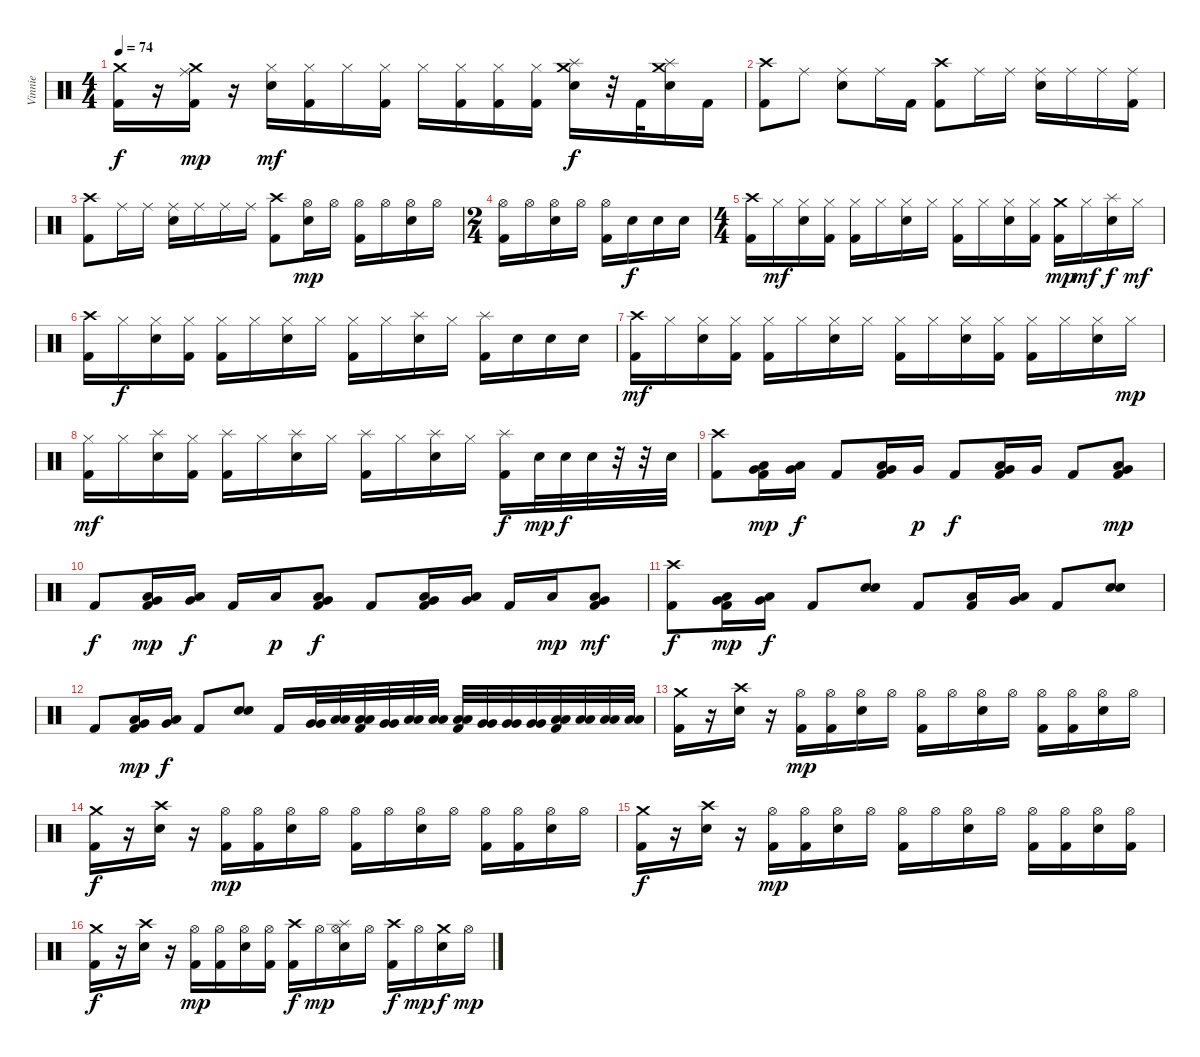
\track ("Vinnie" "Vinnie") {instrument percussion}
\staff {score}
\articulation defaults
\ts (4 4)
\tempo 74
\clef neutral
\ks c
("Crash medium (hit)" "Kick (hit) 2").16{dy f} r.16 ("Crash medium (hit)" "Ride (middle)" "Kick (hit) 2").16{dy mp} r.16 ("Hi-Hat (closed)" "Electric Snare (hit)").16{dy mf} ("Hi-Hat (closed)" "Kick (hit) 2").16 "Hi-Hat (closed)".16 ("Hi-Hat (closed)" "Kick (hit) 2").16 "Hi-Hat (closed)".16 ("Hi-Hat (closed)" "Kick (hit) 2").16 ("Hi-Hat (closed)" "Kick (hit) 2").16 ("Hi-Hat (closed)" "Kick (hit) 2").16 ("Crash medium (hit)" "Splash (hit)" "Electric Snare (hit)").16{dy f} r.32 "Kick (hit) 2".32 ("Crash medium (hit)" "Splash (hit)" "Electric Snare (hit)").16 "Kick (hit) 2".16 |
("Crash high (hit)" "Kick (hit) 2").8 "Ride (middle)".8 ("Ride (middle)" "Electric Snare (hit)").8 "Ride (middle)".16 "Kick (hit) 2".16 ("Crash high (hit)" "Kick (hit) 2").8 "Ride (middle)".16 "Ride (middle)".16 ("Ride (middle)" "Electric Snare (hit)").16 "Ride (middle)".16 "Ride (middle)".16 ("Ride (middle)" "Kick (hit) 2").16 |
("Crash high (hit)" "Kick (hit) 2").8 "Ride (middle)".16 "Ride (middle)".16 ("Ride (middle)" "Electric Snare (hit)").16 "Ride (middle)".16 "Ride (middle)".16 "Ride (middle)".16 ("Crash high (hit)" "Kick (hit) 2").8 ("Hi-Hat (open)" "Electric Snare (hit)").16{dy mp} "Hi-Hat (open)".16 ("Hi-Hat (open)" "Kick (hit) 2").16 "Hi-Hat (open)".16 ("Hi-Hat (open)" "Electric Snare (hit)").16 "Hi-Hat (open)".16 |
\ts (2 4)
("Hi-Hat (open)" "Kick (hit) 2").16 "Hi-Hat (open)".16 ("Hi-Hat (open)" "Electric Snare (hit)").16 "Hi-Hat (open)".16 ("Hi-Hat (open)" "Kick (hit) 2").16 "Electric Snare (hit)".16{dy f} "Electric Snare (hit)".16 "Electric Snare (hit)".16 |
\ts (4 4)
("Crash high (hit)" "Kick (hit) 2").16 "Hi-Hat (closed)".16{dy mf} ("Hi-Hat (closed)" "Electric Snare (hit)").16 ("Hi-Hat (closed)" "Kick (hit) 2").16 ("Hi-Hat (closed)" "Kick (hit) 2").16 "Hi-Hat (closed)".16 ("Hi-Hat (closed)" "Electric Snare (hit)").16 "Hi-Hat (closed)".16 ("Hi-Hat (closed)" "Kick (hit) 2").16 "Hi-Hat (closed)".16 ("Hi-Hat (closed)" "Electric Snare (hit)").16 ("Hi-Hat (closed)" "Kick (hit) 2").16 ("Crash medium (hit)" "Kick (hit) 2").16{dy mp} "Hi-Hat (closed)".16{dy mf} ("Splash (hit)" "Electric Snare (hit)").16{dy f} "Hi-Hat (closed)".16{dy mf} |
("Crash high (hit)" "Kick (hit) 2").16 "Hi-Hat (closed)".16{dy f} ("Hi-Hat (closed)" "Electric Snare (hit)").16 ("Hi-Hat (closed)" "Kick (hit) 2").16 ("Hi-Hat (closed)" "Kick (hit) 2").16 "Hi-Hat (closed)".16 ("Hi-Hat (closed)" "Electric Snare (hit)").16 "Hi-Hat (closed)".16 ("Hi-Hat (closed)" "Kick (hit) 2").16 "Hi-Hat (closed)".16 ("Splash (hit)" "Electric Snare (hit)").16 "Hi-Hat (closed)".16 ("Splash (hit)" "Kick (hit) 2").16 "Electric Snare (hit)".16 "Electric Snare (hit)".16 "Electric Snare (hit)".16 |
("Crash high (hit)" "Kick (hit) 2").16{dy mf} "Hi-Hat (closed)".16 ("Hi-Hat (closed)" "Electric Snare (hit)").16 ("Hi-Hat (closed)" "Kick (hit) 2").16 ("Hi-Hat (closed)" "Kick (hit) 2").16 "Hi-Hat (closed)".16 ("Hi-Hat (closed)" "Electric Snare (hit)").16 "Hi-Hat (closed)".16 ("Hi-Hat (closed)" "Kick (hit) 2").16 "Hi-Hat (closed)".16 ("Hi-Hat (closed)" "Electric Snare (hit)").16 ("Hi-Hat (closed)" "Kick (hit) 2").16 ("Hi-Hat (closed)" "Kick (hit) 2").16 "Hi-Hat (closed)".16 ("Hi-Hat (closed)" "Electric Snare (hit)").16 "Hi-Hat (closed)".16{dy mp} |
("Hi-Hat (closed)" "Kick (hit) 2").16{dy mf} "Hi-Hat (closed)".16 ("Splash (hit)" "Electric Snare (hit)").16 ("Hi-Hat (closed)" "Kick (hit) 2").16 ("Splash (hit)" "Kick (hit) 2").16 "Hi-Hat (closed)".16 ("Splash (hit)" "Electric Snare (hit)").16 "Hi-Hat (closed)".16 ("Splash (hit)" "Kick (hit) 2").16 "Hi-Hat (closed)".16 ("Splash (hit)" "Electric Snare (hit)").16 "Hi-Hat (closed)".16 ("Splash (hit)" "Kick (hit) 2").16{dy f} "Electric Snare (hit)".32{dy mp} "Electric Snare (hit)".32{dy f} "Electric Snare (hit)".32 r.32 r.32 "Electric Snare (hit)".32 |
("Crash high (hit)" "Kick (hit) 2").8 ("Very Low Tom (hit)" "Low Floor Tom (hit)" "Kick (hit) 2").16{bd 60 dy mp} ("Very Low Tom (hit)" "Low Floor Tom (hit)").16{dy f} "Kick (hit) 2".8 ("Very Low Tom (hit)" "Low Floor Tom (hit)" "Kick (hit) 2").16 "Very Low Tom (hit)".16{dy p} "Kick (hit) 2".8{dy f} ("Very Low Tom (hit)" "Low Floor Tom (hit)" "Kick (hit) 2").16{bd 60} "Very Low Tom (hit)".16 "Kick (hit) 2".8 ("Very Low Tom (hit)" "Low Floor Tom (hit)" "Kick (hit) 2").8{dy mp} |
"Kick (hit) 2".8{dy f} ("Very Low Tom (hit)" "Low Floor Tom (hit)" "Kick (hit) 2").16{dy mp} ("Very Low Tom (hit)" "Low Floor Tom (hit)").16{bd 60 dy f} "Kick (hit) 2".16 "Low Floor Tom (hit)".16{dy p} ("Very Low Tom (hit)" "Low Floor Tom (hit)" "Kick (hit) 2").8{dy f} "Kick (hit) 2".8 ("Very Low Tom (hit)" "Low Floor Tom (hit)" "Kick (hit) 2").16 ("Very Low Tom (hit)" "Low Floor Tom (hit)").16{bd 60} "Kick (hit) 2".16 "Low Floor Tom (hit)".16{dy mp} ("Very Low Tom (hit)" "Low Floor Tom (hit)" "Kick (hit) 2").8{dy mf} |
("Crash high (hit)" "Kick (hit) 2").8{dy f} ("Very Low Tom (hit)" "Low Floor Tom (hit)" "Kick (hit) 2").16{dy mp} ("Very Low Tom (hit)" "Low Floor Tom (hit)").16{bd 60 dy f} "Kick (hit) 2".8 ("Electric Snare (hit)" "Electric Snare (hit)").8{bd 120} "Kick (hit) 2".8 ("Low Floor Tom (hit)" "Kick (hit) 2").16 ("Very Low Tom (hit)" "Low Floor Tom (hit)").16{bd 60} "Kick (hit) 2".8 ("Electric Snare (hit)" "Electric Snare (hit)").8{bd 30} |
"Kick (hit) 2".8 ("Very Low Tom (hit)" "Low Floor Tom (hit)" "Kick (hit) 2").16{bu 60 dy mp} ("Very Low Tom (hit)" "Low Floor Tom (hit)").16{bd 60 dy f} "Kick (hit) 2".8 ("Electric Snare (hit)" "Electric Snare (hit)").8{bd 30} "Kick (hit) 2".16 ("Very Low Tom (hit)" "Very Low Tom (hit)").32 ("Low Floor Tom (hit)" "Low Floor Tom (hit)").32 ("Low Floor Tom (hit)" "Low Floor Tom (hit)" "Kick (hit) 2").32 ("Very Low Tom (hit)" "Very Low Tom (hit)").32 ("Low Tom (hit)" "Low Tom (hit)").32 ("Low Tom (hit)" "Low Tom (hit)").32 ("Low Tom (hit)" "Low Tom (hit)" "Kick (hit) 2").32 ("Very Low Tom (hit)" "Very Low Tom (hit)").32 ("Very Low Tom (hit)" "Very Low Tom (hit)").32 ("Very Low Tom (hit)" "Very Low Tom (hit)").32 ("Low Floor Tom (hit)" "Low Floor Tom (hit)" "Kick (hit) 2").32 ("Low Floor Tom (hit)" "Low Floor Tom (hit)").32 ("Low Floor Tom (hit)" "Low Floor Tom (hit)").32 ("Low Floor Tom (hit)" "Low Floor Tom (hit)").32 |
("Crash medium (hit)" "Kick (hit) 2").16 r.16 ("Crash high (hit)" "Electric Snare (hit)").16 r.16 ("Hi-Hat (open)" "Kick (hit) 2").16{dy mp} ("Hi-Hat (open)" "Kick (hit) 2").16 ("Hi-Hat (open)" "Electric Snare (hit)").16 "Hi-Hat (open)".16 ("Hi-Hat (open)" "Kick (hit) 2").16 "Hi-Hat (open)".16 ("Hi-Hat (open)" "Electric Snare (hit)").16 "Hi-Hat (open)".16 ("Hi-Hat (open)" "Kick (hit) 2").16 ("Hi-Hat (open)" "Kick (hit) 2").16 ("Hi-Hat (open)" "Electric Snare (hit)").16 "Hi-Hat (open)".16 |
("Crash medium (hit)" "Kick (hit) 2").16{dy f} r.16 ("Crash high (hit)" "Electric Snare (hit)").16 r.16 ("Hi-Hat (open)" "Kick (hit) 2").16{dy mp} ("Hi-Hat (open)" "Kick (hit) 2").16 ("Hi-Hat (open)" "Electric Snare (hit)").16 "Hi-Hat (open)".16 ("Hi-Hat (open)" "Kick (hit) 2").16 "Hi-Hat (open)".16 ("Hi-Hat (open)" "Electric Snare (hit)").16 "Hi-Hat (open)".16 ("Hi-Hat (open)" "Kick (hit) 2").16 ("Hi-Hat (open)" "Kick (hit) 2").16 ("Hi-Hat (open)" "Electric Snare (hit)").16 "Hi-Hat (open)".16 |
("Crash medium (hit)" "Kick (hit) 2").16{dy f} r.16 ("Crash high (hit)" "Electric Snare (hit)").16 r.16 ("Hi-Hat (open)" "Kick (hit) 2").16{dy mp} ("Hi-Hat (open)" "Kick (hit) 2").16 ("Hi-Hat (open)" "Electric Snare (hit)").16 "Hi-Hat (open)".16 ("Hi-Hat (open)" "Kick (hit) 2").16 "Hi-Hat (open)".16 ("Hi-Hat (open)" "Electric Snare (hit)").16 "Hi-Hat (open)".16 ("Hi-Hat (open)" "Kick (hit) 2").16 ("Hi-Hat (open)" "Kick (hit) 2").16 ("Hi-Hat (open)" "Electric Snare (hit)").16 ("Hi-Hat (open)" "Kick (hit) 2").16 |
("Crash medium (hit)" "Kick (hit) 2").16{dy f} r.16 ("Crash high (hit)" "Electric Snare (hit)").16 r.16 ("Hi-Hat (open)" "Kick (hit) 2").16{dy mp} ("Hi-Hat (open)" "Kick (hit) 2").16 ("Hi-Hat (open)" "Electric Snare (hit)").16 ("Hi-Hat (open)" "Kick (hit) 2").16 ("Crash high (hit)" "Kick (hit) 2").16{dy f} "Hi-Hat (open)".16{dy mp} ("Hi-Hat (open)" "Splash (hit)" "Electric Snare (hit)").16 "Hi-Hat (open)".16 ("Crash high (hit)" "Kick (hit) 2").16{dy f} "Hi-Hat (open)".16{dy mp} ("Crash medium (hit)" "Electric Snare (hit)").16{dy f} "Hi-Hat (open)".16{dy mp}
